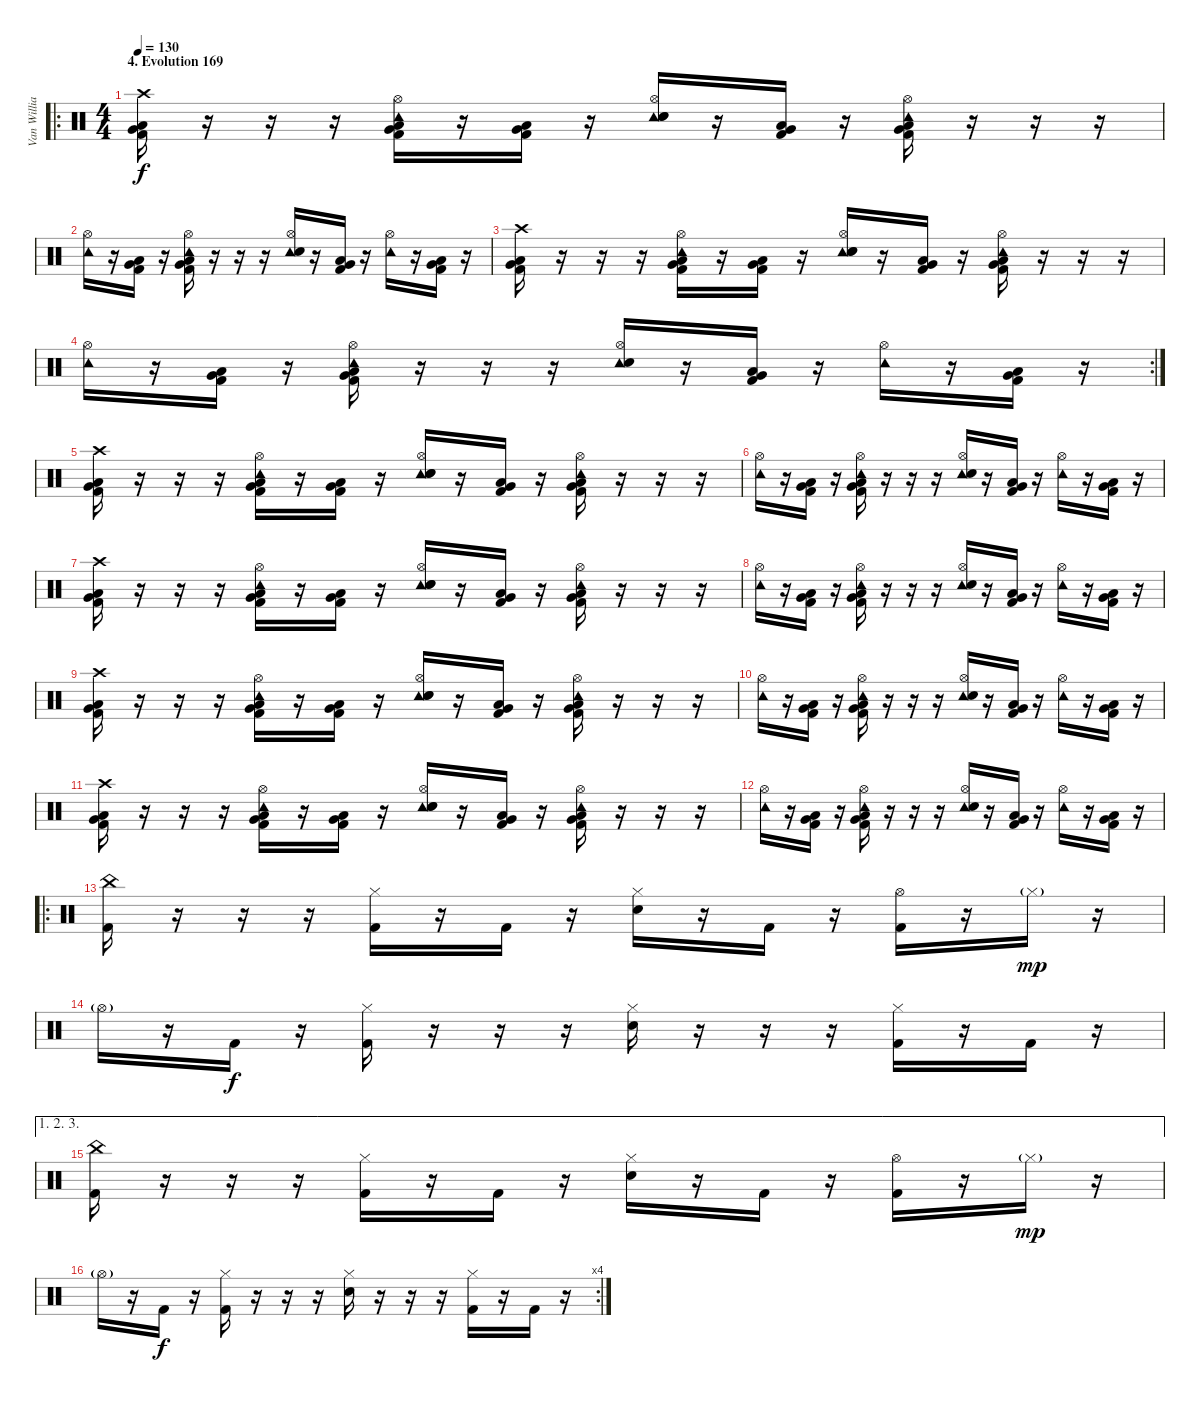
\track ("Van Williams" "Van Willia") {instrument percussion}
\staff {score}
\articulation defaults
\ro
\ts (4 4)
\section ("" "4. Evolution 169")
\tempo 130
\clef neutral
\ks c
("Crash high (hit)" "Kick (hit) 2" "Very Low Tom (hit)" "Low Floor Tom (hit)").16{dy f} r.16 r.16 r.16 ("Tambourine (hit)" "Hi-Hat (open)" "Kick (hit) 2" "Very Low Tom (hit)" "Low Floor Tom (hit)").16 r.16 ("Kick (hit) 2" "Very Low Tom (hit)" "Low Floor Tom (hit)").16 r.16 ("Tambourine (hit)" "Hi-Hat (open)" "Electric Snare (hit)" "Electric Snare (hit)").16 r.16 ("Kick (hit) 2" "Very Low Tom (hit)" "Low Floor Tom (hit)").16 r.16 ("Tambourine (hit)" "Hi-Hat (open)" "Kick (hit) 2" "Very Low Tom (hit)" "Low Floor Tom (hit)").16 r.16 r.16 r.16 |
("Tambourine (hit)" "Hi-Hat (open)").16 r.16 ("Kick (hit) 2" "Very Low Tom (hit)" "Low Floor Tom (hit)").16 r.16 ("Tambourine (hit)" "Hi-Hat (open)" "Kick (hit) 2" "Very Low Tom (hit)" "Low Floor Tom (hit)").16 r.16 r.16 r.16 ("Tambourine (hit)" "Hi-Hat (open)" "Electric Snare (hit)").16 r.16 ("Kick (hit) 2" "Very Low Tom (hit)" "Low Floor Tom (hit)").16 r.16 ("Tambourine (hit)" "Hi-Hat (open)").16 r.16 ("Kick (hit) 2" "Very Low Tom (hit)" "Low Floor Tom (hit)").16 r.16 |
("Crash high (hit)" "Kick (hit) 2" "Very Low Tom (hit)" "Low Floor Tom (hit)").16 r.16 r.16 r.16 ("Tambourine (hit)" "Hi-Hat (open)" "Kick (hit) 2" "Very Low Tom (hit)" "Low Floor Tom (hit)").16 r.16 ("Kick (hit) 2" "Very Low Tom (hit)" "Low Floor Tom (hit)").16 r.16 ("Tambourine (hit)" "Hi-Hat (open)" "Electric Snare (hit)" "Electric Snare (hit)").16 r.16 ("Kick (hit) 2" "Very Low Tom (hit)" "Low Floor Tom (hit)").16 r.16 ("Tambourine (hit)" "Hi-Hat (open)" "Kick (hit) 2" "Very Low Tom (hit)" "Low Floor Tom (hit)").16 r.16 r.16 r.16 |
\rc 2
("Tambourine (hit)" "Hi-Hat (open)").16 r.16 ("Kick (hit) 2" "Very Low Tom (hit)" "Low Floor Tom (hit)").16 r.16 ("Tambourine (hit)" "Hi-Hat (open)" "Kick (hit) 2" "Very Low Tom (hit)" "Low Floor Tom (hit)").16 r.16 r.16 r.16 ("Tambourine (hit)" "Hi-Hat (open)" "Electric Snare (hit)").16 r.16 ("Kick (hit) 2" "Very Low Tom (hit)" "Low Floor Tom (hit)").16 r.16 ("Tambourine (hit)" "Hi-Hat (open)").16 r.16 ("Kick (hit) 2" "Very Low Tom (hit)" "Low Floor Tom (hit)").16 r.16 |
("Crash high (hit)" "Kick (hit) 2" "Very Low Tom (hit)" "Low Floor Tom (hit)").16 r.16 r.16 r.16 ("Tambourine (hit)" "Hi-Hat (open)" "Kick (hit) 2" "Very Low Tom (hit)" "Low Floor Tom (hit)").16 r.16 ("Kick (hit) 2" "Very Low Tom (hit)" "Low Floor Tom (hit)").16 r.16 ("Tambourine (hit)" "Hi-Hat (open)" "Electric Snare (hit)" "Electric Snare (hit)").16 r.16 ("Kick (hit) 2" "Very Low Tom (hit)" "Low Floor Tom (hit)").16 r.16 ("Tambourine (hit)" "Hi-Hat (open)" "Kick (hit) 2" "Very Low Tom (hit)" "Low Floor Tom (hit)").16 r.16 r.16 r.16 |
("Tambourine (hit)" "Hi-Hat (open)").16 r.16 ("Kick (hit) 2" "Very Low Tom (hit)" "Low Floor Tom (hit)").16 r.16 ("Tambourine (hit)" "Hi-Hat (open)" "Kick (hit) 2" "Very Low Tom (hit)" "Low Floor Tom (hit)").16 r.16 r.16 r.16 ("Tambourine (hit)" "Hi-Hat (open)" "Electric Snare (hit)").16 r.16 ("Kick (hit) 2" "Very Low Tom (hit)" "Low Floor Tom (hit)").16 r.16 ("Tambourine (hit)" "Hi-Hat (open)").16 r.16 ("Kick (hit) 2" "Very Low Tom (hit)" "Low Floor Tom (hit)").16 r.16 |
("Crash high (hit)" "Kick (hit) 2" "Very Low Tom (hit)" "Low Floor Tom (hit)").16 r.16 r.16 r.16 ("Tambourine (hit)" "Hi-Hat (open)" "Kick (hit) 2" "Very Low Tom (hit)" "Low Floor Tom (hit)").16 r.16 ("Kick (hit) 2" "Very Low Tom (hit)" "Low Floor Tom (hit)").16 r.16 ("Tambourine (hit)" "Hi-Hat (open)" "Electric Snare (hit)" "Electric Snare (hit)").16 r.16 ("Kick (hit) 2" "Very Low Tom (hit)" "Low Floor Tom (hit)").16 r.16 ("Tambourine (hit)" "Hi-Hat (open)" "Kick (hit) 2" "Very Low Tom (hit)" "Low Floor Tom (hit)").16 r.16 r.16 r.16 |
("Tambourine (hit)" "Hi-Hat (open)").16 r.16 ("Kick (hit) 2" "Very Low Tom (hit)" "Low Floor Tom (hit)").16 r.16 ("Tambourine (hit)" "Hi-Hat (open)" "Kick (hit) 2" "Very Low Tom (hit)" "Low Floor Tom (hit)").16 r.16 r.16 r.16 ("Tambourine (hit)" "Hi-Hat (open)" "Electric Snare (hit)").16 r.16 ("Kick (hit) 2" "Very Low Tom (hit)" "Low Floor Tom (hit)").16 r.16 ("Tambourine (hit)" "Hi-Hat (open)").16 r.16 ("Kick (hit) 2" "Very Low Tom (hit)" "Low Floor Tom (hit)").16 r.16 |
("Crash high (hit)" "Kick (hit) 2" "Very Low Tom (hit)" "Low Floor Tom (hit)").16 r.16 r.16 r.16 ("Tambourine (hit)" "Hi-Hat (open)" "Kick (hit) 2" "Very Low Tom (hit)" "Low Floor Tom (hit)").16 r.16 ("Kick (hit) 2" "Very Low Tom (hit)" "Low Floor Tom (hit)").16 r.16 ("Tambourine (hit)" "Hi-Hat (open)" "Electric Snare (hit)" "Electric Snare (hit)").16 r.16 ("Kick (hit) 2" "Very Low Tom (hit)" "Low Floor Tom (hit)").16 r.16 ("Tambourine (hit)" "Hi-Hat (open)" "Kick (hit) 2" "Very Low Tom (hit)" "Low Floor Tom (hit)").16 r.16 r.16 r.16 |
("Tambourine (hit)" "Hi-Hat (open)").16 r.16 ("Kick (hit) 2" "Very Low Tom (hit)" "Low Floor Tom (hit)").16 r.16 ("Tambourine (hit)" "Hi-Hat (open)" "Kick (hit) 2" "Very Low Tom (hit)" "Low Floor Tom (hit)").16 r.16 r.16 r.16 ("Tambourine (hit)" "Hi-Hat (open)" "Electric Snare (hit)").16 r.16 ("Kick (hit) 2" "Very Low Tom (hit)" "Low Floor Tom (hit)").16 r.16 ("Tambourine (hit)" "Hi-Hat (open)").16 r.16 ("Kick (hit) 2" "Very Low Tom (hit)" "Low Floor Tom (hit)").16 r.16 |
("Crash high (hit)" "Kick (hit) 2" "Very Low Tom (hit)" "Low Floor Tom (hit)").16 r.16 r.16 r.16 ("Tambourine (hit)" "Hi-Hat (open)" "Kick (hit) 2" "Very Low Tom (hit)" "Low Floor Tom (hit)").16 r.16 ("Kick (hit) 2" "Very Low Tom (hit)" "Low Floor Tom (hit)").16 r.16 ("Tambourine (hit)" "Hi-Hat (open)" "Electric Snare (hit)" "Electric Snare (hit)").16 r.16 ("Kick (hit) 2" "Very Low Tom (hit)" "Low Floor Tom (hit)").16 r.16 ("Tambourine (hit)" "Hi-Hat (open)" "Kick (hit) 2" "Very Low Tom (hit)" "Low Floor Tom (hit)").16 r.16 r.16 r.16 |
("Tambourine (hit)" "Hi-Hat (open)").16 r.16 ("Kick (hit) 2" "Very Low Tom (hit)" "Low Floor Tom (hit)").16 r.16 ("Tambourine (hit)" "Hi-Hat (open)" "Kick (hit) 2" "Very Low Tom (hit)" "Low Floor Tom (hit)").16 r.16 r.16 r.16 ("Tambourine (hit)" "Hi-Hat (open)" "Electric Snare (hit)").16 r.16 ("Kick (hit) 2" "Very Low Tom (hit)" "Low Floor Tom (hit)").16 r.16 ("Tambourine (hit)" "Hi-Hat (open)").16 r.16 ("Kick (hit) 2" "Very Low Tom (hit)" "Low Floor Tom (hit)").16 r.16 |
\ro
("China (hit)" "Kick (hit) 2").16 r.16 r.16 r.16 ("Hi-Hat (closed)" "Kick (hit) 2").16 r.16 "Kick (hit) 2".16 r.16 ("Hi-Hat (closed)" "Electric Snare (hit)").16 r.16 "Kick (hit) 2".16 r.16 ("Hi-Hat (open)" "Kick (hit) 2").16 r.16 "Hi-Hat (closed)"{g}.16{dy mp} r.16 |
"Hi-Hat (open)"{g}.16 r.16 "Kick (hit) 2".16{dy f} r.16 ("Hi-Hat (closed)" "Kick (hit) 2").16 r.16 r.16 r.16 ("Hi-Hat (closed)" "Electric Snare (hit)").16 r.16 r.16 r.16 ("Hi-Hat (closed)" "Kick (hit) 2").16 r.16 "Kick (hit) 2".16 r.16 |
\ae (1 2 3)
("China (hit)" "Kick (hit) 2").16 r.16 r.16 r.16 ("Hi-Hat (closed)" "Kick (hit) 2").16 r.16 "Kick (hit) 2".16 r.16 ("Hi-Hat (closed)" "Electric Snare (hit)").16 r.16 "Kick (hit) 2".16 r.16 ("Hi-Hat (open)" "Kick (hit) 2").16 r.16 "Hi-Hat (closed)"{g}.16{dy mp} r.16 |
\rc 4 "Hi-Hat (open)"{g}.16
r.16 "Kick (hit) 2".16{dy f} r.16 ("Hi-Hat (closed)" "Kick (hit) 2").16 r.16 r.16 r.16 ("Hi-Hat (closed)" "Electric Snare (hit)").16 r.16 r.16 r.16 ("Hi-Hat (closed)" "Kick (hit) 2").16 r.16 "Kick (hit) 2".16 r.16
